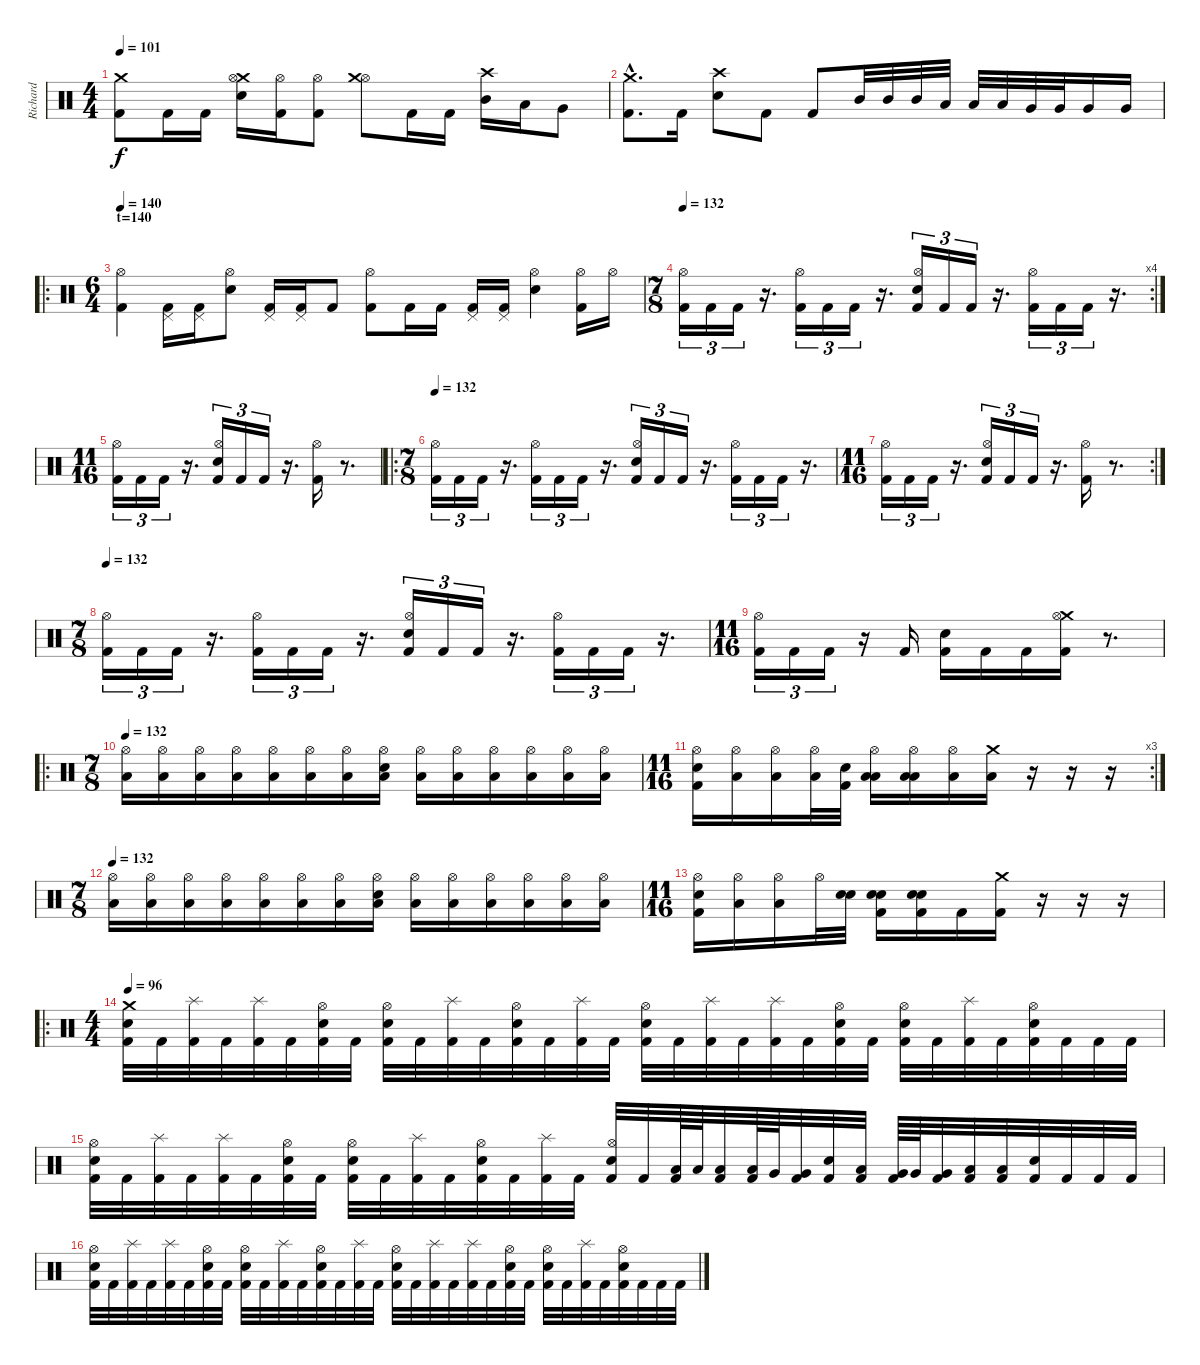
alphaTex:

\track ("Richard" "Richard") {instrument percussion}
\staff {score}
\articulation defaults
\ts (4 4)
\tempo 101
\clef neutral
\ks c
("Crash medium (hit)" "Kick (hit) 2").8{dy f} "Kick (hit) 2".16 "Kick (hit) 2".16 ("Crash medium (hit)" "Hi-Hat (open)" "Electric Snare (hit)").16 ("Hi-Hat (open)" "Kick (hit) 2").16 ("Hi-Hat (open)" "Kick (hit) 2").8 ("Hi-Hat (open)" "Crash medium (hit)").8 "Kick (hit) 2".16 "Kick (hit) 2".16 ("Crash high (hit)" "Mid Tom (hit)").16 "Low Tom (hit)".16 "Very Low Tom (hit)".8 |
("Crash medium (hit)"{hac} "Kick (hit) 2"{hac}).8{d} "Kick (hit) 2".16 ("Crash high (hit)" "Electric Snare (hit)").8 "Kick (hit) 2".8 "Kick (hit) 2".8 "Mid Tom (hit)".32 "Mid Tom (hit)".32 "Mid Tom (hit)".32 "Low Tom (hit)".32 "Low Tom (hit)".32 "Low Tom (hit)".32 "Very Low Tom (hit)".32 "Very Low Tom (hit)".32 "Very Low Tom (hit)".16 "Very Low Tom (hit)".16 |
\ro
\ts (6 4)
\section ("" "t=140")
\tempo 140
("Hi-Hat (open)" "Kick (hit) 2").4 ("Pedal Hi-Hat (hit)" "Kick (hit) 2").16 ("Pedal Hi-Hat (hit)" "Kick (hit) 2").16 ("Hi-Hat (open)" "Electric Snare (hit)").8 ("Pedal Hi-Hat (hit)" "Kick (hit) 2").16 ("Pedal Hi-Hat (hit)" "Kick (hit) 2").16 "Kick (hit) 2".8 ("Hi-Hat (open)" "Kick (hit) 2").8 "Kick (hit) 2".16 "Kick (hit) 2".16 ("Pedal Hi-Hat (hit)" "Kick (hit) 2").16 ("Pedal Hi-Hat (hit)" "Kick (hit) 2").16 ("Hi-Hat (open)" "Electric Snare (hit)").4 ("Hi-Hat (open)" "Kick (hit) 2").16 "Hi-Hat (open)".16 |
\rc 4
\ts (7 8)
\tempo 132
("Hi-Hat (open)" "Kick (hit) 2").16{tu (3 2)} "Kick (hit) 2".16{tu (3 2)} "Kick (hit) 2".16{tu (3 2)} r.16{d} ("Hi-Hat (open)" "Kick (hit) 2").16{tu (3 2)} "Kick (hit) 2".16{tu (3 2)} "Kick (hit) 2".16{tu (3 2)} r.16{d} ("Hi-Hat (open)" "Electric Snare (hit)" "Kick (hit) 2").16{tu (3 2)} "Kick (hit) 2".16{tu (3 2)} "Kick (hit) 2".16{tu (3 2)} r.16{d} ("Hi-Hat (open)" "Kick (hit) 2").16{tu (3 2)} "Kick (hit) 2".16{tu (3 2)} "Kick (hit) 2".16{tu (3 2)} r.16{d} |
\ts (11 16)
("Hi-Hat (open)" "Kick (hit) 2").16{tu (3 2)} "Kick (hit) 2".16{tu (3 2)} "Kick (hit) 2".16{tu (3 2)} r.16{d} ("Electric Snare (hit)" "Hi-Hat (open)" "Kick (hit) 2").16{tu (3 2)} "Kick (hit) 2".16{tu (3 2)} "Kick (hit) 2".16{tu (3 2)} r.16{d} ("Hi-Hat (open)" "Kick (hit) 2").16 r.8{d} |
\ro
\ts (7 8)
\tempo 132
("Hi-Hat (open)" "Kick (hit) 2").16{tu (3 2)} "Kick (hit) 2".16{tu (3 2)} "Kick (hit) 2".16{tu (3 2)} r.16{d} ("Hi-Hat (open)" "Kick (hit) 2").16{tu (3 2)} "Kick (hit) 2".16{tu (3 2)} "Kick (hit) 2".16{tu (3 2)} r.16{d} ("Hi-Hat (open)" "Electric Snare (hit)" "Kick (hit) 2").16{tu (3 2)} "Kick (hit) 2".16{tu (3 2)} "Kick (hit) 2".16{tu (3 2)} r.16{d} ("Hi-Hat (open)" "Kick (hit) 2").16{tu (3 2)} "Kick (hit) 2".16{tu (3 2)} "Kick (hit) 2".16{tu (3 2)} r.16{d} |
\rc 2
\ts (11 16)
("Hi-Hat (open)" "Kick (hit) 2").16{tu (3 2)} "Kick (hit) 2".16{tu (3 2)} "Kick (hit) 2".16{tu (3 2)} r.16{d} ("Electric Snare (hit)" "Hi-Hat (open)" "Kick (hit) 2").16{tu (3 2)} "Kick (hit) 2".16{tu (3 2)} "Kick (hit) 2".16{tu (3 2)} r.16{d} ("Hi-Hat (open)" "Kick (hit) 2").16 r.8{d} |
\ts (7 8)
\tempo 132
("Hi-Hat (open)" "Kick (hit) 2").16{tu (3 2)} "Kick (hit) 2".16{tu (3 2)} "Kick (hit) 2".16{tu (3 2)} r.16{d} ("Hi-Hat (open)" "Kick (hit) 2").16{tu (3 2)} "Kick (hit) 2".16{tu (3 2)} "Kick (hit) 2".16{tu (3 2)} r.16{d} ("Hi-Hat (open)" "Electric Snare (hit)" "Kick (hit) 2").16{tu (3 2)} "Kick (hit) 2".16{tu (3 2)} "Kick (hit) 2".16{tu (3 2)} r.16{d} ("Hi-Hat (open)" "Kick (hit) 2").16{tu (3 2)} "Kick (hit) 2".16{tu (3 2)} "Kick (hit) 2".16{tu (3 2)} r.16{d} |
\ts (11 16)
("Hi-Hat (open)" "Kick (hit) 2").16{tu (3 2)} "Kick (hit) 2".16{tu (3 2)} "Kick (hit) 2".16{tu (3 2)} r.16 "Kick (hit) 2".16 ("Electric Snare (hit)" "Kick (hit) 2").16 "Kick (hit) 2".16 "Kick (hit) 2".16 ("Crash medium (hit)" "Hi-Hat (open)" "Kick (hit) 2").16 r.8{d} |
\ro
\ts (7 8)
\tempo 132
("Hi-Hat (open)" "Low Floor Tom (hit)").16 ("Hi-Hat (open)" "Low Floor Tom (hit)").16 ("Hi-Hat (open)" "Low Floor Tom (hit)").16 ("Hi-Hat (open)" "Low Floor Tom (hit)").16 ("Hi-Hat (open)" "Low Floor Tom (hit)").16 ("Hi-Hat (open)" "Low Floor Tom (hit)").16 ("Hi-Hat (open)" "Low Floor Tom (hit)").16 ("Hi-Hat (open)" "Electric Snare (hit)" "Low Floor Tom (hit)").16 ("Hi-Hat (open)" "Low Floor Tom (hit)").16 ("Hi-Hat (open)" "Low Floor Tom (hit)").16 ("Hi-Hat (open)" "Low Floor Tom (hit)").16 ("Hi-Hat (open)" "Low Floor Tom (hit)").16 ("Hi-Hat (open)" "Low Floor Tom (hit)").16 ("Hi-Hat (open)" "Low Floor Tom (hit)").16 |
\rc 3
\ts (11 16)
("Hi-Hat (open)" "Electric Snare (hit)" "Kick (hit) 2").16 ("Hi-Hat (open)" "Low Floor Tom (hit)").16 ("Hi-Hat (open)" "Low Floor Tom (hit)").16 ("Hi-Hat (open)" "Low Floor Tom (hit)").32 ("Kick (hit) 2" "Electric Snare (hit)").32 ("Hi-Hat (open)" "Low Tom (hit)" "Low Floor Tom (hit)").16 ("Hi-Hat (open)" "Low Tom (hit)" "Low Floor Tom (hit)").16 ("Hi-Hat (open)" "Low Floor Tom (hit)").16 ("Crash medium (hit)" "Low Floor Tom (hit)").16 r.16 r.16 r.16 |
\ts (7 8)
\tempo 132
("Hi-Hat (open)" "Low Floor Tom (hit)").16 ("Hi-Hat (open)" "Low Floor Tom (hit)").16 ("Hi-Hat (open)" "Low Floor Tom (hit)").16 ("Hi-Hat (open)" "Low Floor Tom (hit)").16 ("Hi-Hat (open)" "Low Floor Tom (hit)").16 ("Hi-Hat (open)" "Low Floor Tom (hit)").16 ("Hi-Hat (open)" "Low Floor Tom (hit)").16 ("Hi-Hat (open)" "Electric Snare (hit)" "Low Floor Tom (hit)").16 ("Hi-Hat (open)" "Low Floor Tom (hit)").16 ("Hi-Hat (open)" "Low Floor Tom (hit)").16 ("Hi-Hat (open)" "Low Floor Tom (hit)").16 ("Hi-Hat (open)" "Low Floor Tom (hit)").16 ("Hi-Hat (open)" "Low Floor Tom (hit)").16 ("Hi-Hat (open)" "Low Floor Tom (hit)").16 |
\ts (11 16)
("Hi-Hat (open)" "Electric Snare (hit)" "Kick (hit) 2").16 ("Hi-Hat (open)" "Low Floor Tom (hit)").16 ("Hi-Hat (open)" "Low Floor Tom (hit)").16 "Hi-Hat (open)".32 ("Snare (hit) 2" "Electric Snare (hit)").32 ("Electric Snare (hit)" "Snare (hit) 2" "Kick (hit) 2").16 ("Snare (hit) 2" "Electric Snare (hit)" "Kick (hit) 2").16 "Kick (hit) 2".16 ("Crash medium (hit)" "Kick (hit) 2").16 r.16 r.16 r.16 |
\ro
\ts (4 4)
\tempo 96
("Crash medium (hit)" "Electric Snare (hit)" "Kick (hit) 2").32 "Kick (hit) 2".32 ("Splash (hit)" "Kick (hit) 2").32 "Kick (hit) 2".32 ("Splash (hit)" "Kick (hit) 2").32 "Kick (hit) 2".32 ("Hi-Hat (open)" "Electric Snare (hit)" "Kick (hit) 2").32 "Kick (hit) 2".32 ("Hi-Hat (open)" "Electric Snare (hit)" "Kick (hit) 2").32 "Kick (hit) 2".32 ("Splash (hit)" "Kick (hit) 2").32 "Kick (hit) 2".32 ("Hi-Hat (open)" "Electric Snare (hit)" "Kick (hit) 2").32 "Kick (hit) 2".32 ("Splash (hit)" "Kick (hit) 2").32 "Kick (hit) 2".32 ("Hi-Hat (open)" "Electric Snare (hit)" "Kick (hit) 2").32 "Kick (hit) 2".32 ("Splash (hit)" "Kick (hit) 2").32 "Kick (hit) 2".32 ("Splash (hit)" "Kick (hit) 2").32 "Kick (hit) 2".32 ("Hi-Hat (open)" "Electric Snare (hit)" "Kick (hit) 2").32 "Kick (hit) 2".32 ("Hi-Hat (open)" "Electric Snare (hit)" "Kick (hit) 2").32 "Kick (hit) 2".32 ("Splash (hit)" "Kick (hit) 2").32 "Kick (hit) 2".32 ("Hi-Hat (open)" "Electric Snare (hit)" "Kick (hit) 2").32 "Kick (hit) 2".32 "Kick (hit) 2".32 "Kick (hit) 2".32 |
("Hi-Hat (open)" "Electric Snare (hit)" "Kick (hit) 2").32 "Kick (hit) 2".32 ("Splash (hit)" "Kick (hit) 2").32 "Kick (hit) 2".32 ("Splash (hit)" "Kick (hit) 2").32 "Kick (hit) 2".32 ("Hi-Hat (open)" "Electric Snare (hit)" "Kick (hit) 2").32 "Kick (hit) 2".32 ("Hi-Hat (open)" "Electric Snare (hit)" "Kick (hit) 2").32 "Kick (hit) 2".32 ("Splash (hit)" "Kick (hit) 2").32 "Kick (hit) 2".32 ("Hi-Hat (open)" "Electric Snare (hit)" "Kick (hit) 2").32 "Kick (hit) 2".32 ("Splash (hit)" "Kick (hit) 2").32 "Kick (hit) 2".32 ("Hi-Hat (open)" "Electric Snare (hit)" "Kick (hit) 2").32 "Kick (hit) 2".32 ("Low Tom (hit)" "Kick (hit) 2").64 "Low Tom (hit)".64 ("Low Tom (hit)" "Kick (hit) 2").32 ("Low Tom (hit)" "Kick (hit) 2").64 "Very Low Tom (hit)".64 ("Very Low Tom (hit)" "Kick (hit) 2").32 ("Electric Snare (hit)" "Kick (hit) 2").32 ("Low Tom (hit)" "Kick (hit) 2").32 ("Very Low Tom (hit)" "Kick (hit) 2").64 "Very Low Tom (hit)".64 ("Very Low Tom (hit)" "Kick (hit) 2").32 ("Low Floor Tom (hit)" "Kick (hit) 2").32 ("Low Floor Tom (hit)" "Kick (hit) 2").32 ("Electric Snare (hit)" "Kick (hit) 2").32 "Kick (hit) 2".32 "Kick (hit) 2".32 "Kick (hit) 2".32 |
("Hi-Hat (open)" "Electric Snare (hit)" "Kick (hit) 2").32 "Kick (hit) 2".32 ("Splash (hit)" "Kick (hit) 2").32 "Kick (hit) 2".32 ("Splash (hit)" "Kick (hit) 2").32 "Kick (hit) 2".32 ("Hi-Hat (open)" "Electric Snare (hit)" "Kick (hit) 2").32 "Kick (hit) 2".32 ("Hi-Hat (open)" "Electric Snare (hit)" "Kick (hit) 2").32 "Kick (hit) 2".32 ("Splash (hit)" "Kick (hit) 2").32 "Kick (hit) 2".32 ("Hi-Hat (open)" "Electric Snare (hit)" "Kick (hit) 2").32 "Kick (hit) 2".32 ("Splash (hit)" "Kick (hit) 2").32 "Kick (hit) 2".32 ("Hi-Hat (open)" "Electric Snare (hit)" "Kick (hit) 2").32 "Kick (hit) 2".32 ("Splash (hit)" "Kick (hit) 2").32 "Kick (hit) 2".32 ("Splash (hit)" "Kick (hit) 2").32 "Kick (hit) 2".32 ("Hi-Hat (open)" "Electric Snare (hit)" "Kick (hit) 2").32 "Kick (hit) 2".32 ("Hi-Hat (open)" "Electric Snare (hit)" "Kick (hit) 2").32 "Kick (hit) 2".32 ("Splash (hit)" "Kick (hit) 2").32 "Kick (hit) 2".32 ("Hi-Hat (open)" "Electric Snare (hit)" "Kick (hit) 2").32 "Kick (hit) 2".32 "Kick (hit) 2".32 "Kick (hit) 2".32
